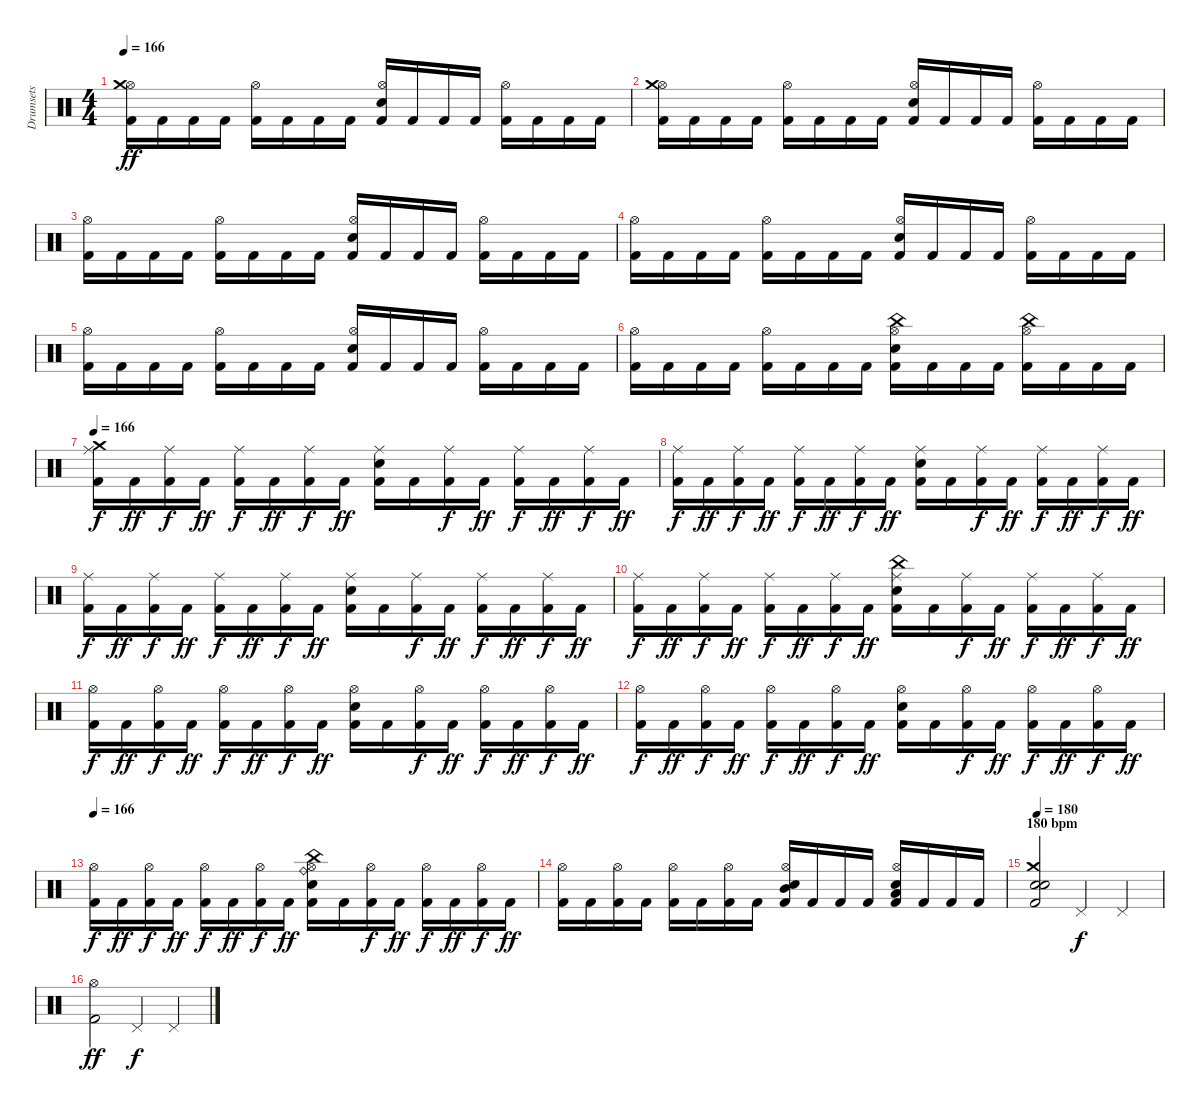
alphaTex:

\track ("Drumsets" "Drumsets") {instrument percussion}
\staff {score}
\articulation defaults
\ts (4 4)
\tempo 166
\clef neutral
\ks c
("Kick (hit) 2" "Hi-Hat (open)" "Crash medium (hit)").16{dy ff} "Kick (hit) 2".16 "Kick (hit) 2".16 "Kick (hit) 2".16 ("Kick (hit) 2" "Hi-Hat (open)").16 "Kick (hit) 2".16 "Kick (hit) 2".16 "Kick (hit) 2".16 ("Kick (hit) 2" "Electric Snare (hit)" "Hi-Hat (open)").16 "Kick (hit) 2".16 "Kick (hit) 2".16 "Kick (hit) 2".16 ("Kick (hit) 2" "Hi-Hat (open)").16 "Kick (hit) 2".16 "Kick (hit) 2".16 "Kick (hit) 2".16 |
("Kick (hit) 2" "Hi-Hat (open)" "Crash medium (hit)").16 "Kick (hit) 2".16 "Kick (hit) 2".16 "Kick (hit) 2".16 ("Kick (hit) 2" "Hi-Hat (open)").16 "Kick (hit) 2".16 "Kick (hit) 2".16 "Kick (hit) 2".16 ("Kick (hit) 2" "Electric Snare (hit)" "Hi-Hat (open)").16 "Kick (hit) 2".16 "Kick (hit) 2".16 "Kick (hit) 2".16 ("Kick (hit) 2" "Hi-Hat (open)").16 "Kick (hit) 2".16 "Kick (hit) 2".16 "Kick (hit) 2".16 |
("Kick (hit) 2" "Hi-Hat (open)").16 "Kick (hit) 2".16 "Kick (hit) 2".16 "Kick (hit) 2".16 ("Kick (hit) 2" "Hi-Hat (open)").16 "Kick (hit) 2".16 "Kick (hit) 2".16 "Kick (hit) 2".16 ("Kick (hit) 2" "Electric Snare (hit)" "Hi-Hat (open)").16 "Kick (hit) 2".16 "Kick (hit) 2".16 "Kick (hit) 2".16 ("Kick (hit) 2" "Hi-Hat (open)").16 "Kick (hit) 2".16 "Kick (hit) 2".16 "Kick (hit) 2".16 |
("Kick (hit) 2" "Hi-Hat (open)").16 "Kick (hit) 2".16 "Kick (hit) 2".16 "Kick (hit) 2".16 ("Kick (hit) 2" "Hi-Hat (open)").16 "Kick (hit) 2".16 "Kick (hit) 2".16 "Kick (hit) 2".16 ("Kick (hit) 2" "Electric Snare (hit)" "Hi-Hat (open)").16 "Kick (hit) 2".16 "Kick (hit) 2".16 "Kick (hit) 2".16 ("Kick (hit) 2" "Hi-Hat (open)").16 "Kick (hit) 2".16 "Kick (hit) 2".16 "Kick (hit) 2".16 |
("Kick (hit) 2" "Hi-Hat (open)").16 "Kick (hit) 2".16 "Kick (hit) 2".16 "Kick (hit) 2".16 ("Kick (hit) 2" "Hi-Hat (open)").16 "Kick (hit) 2".16 "Kick (hit) 2".16 "Kick (hit) 2".16 ("Kick (hit) 2" "Electric Snare (hit)" "Hi-Hat (open)").16 "Kick (hit) 2".16 "Kick (hit) 2".16 "Kick (hit) 2".16 ("Kick (hit) 2" "Hi-Hat (open)").16 "Kick (hit) 2".16 "Kick (hit) 2".16 "Kick (hit) 2".16 |
("Kick (hit) 2" "Hi-Hat (open)").16 "Kick (hit) 2".16 "Kick (hit) 2".16 "Kick (hit) 2".16 ("Kick (hit) 2" "Hi-Hat (open)").16 "Kick (hit) 2".16 "Kick (hit) 2".16 "Kick (hit) 2".16 ("Kick (hit) 2" "Electric Snare (hit)" "Hi-Hat (open)" "China (hit)").16 "Kick (hit) 2".16 "Kick (hit) 2".16 "Kick (hit) 2".16 ("Kick (hit) 2" "Hi-Hat (open)" "China (hit)").16 "Kick (hit) 2".16 "Kick (hit) 2".16 "Kick (hit) 2".16 |
\tempo 166
("Kick (hit) 2" "Ride (middle)" "Crash medium (hit)").16{dy f} "Kick (hit) 2".16{dy ff} ("Kick (hit) 2" "Ride (middle)").16{dy f} "Kick (hit) 2".16{dy ff} ("Kick (hit) 2" "Ride (middle)").16{dy f} "Kick (hit) 2".16{dy ff} ("Kick (hit) 2" "Ride (middle)").16{dy f} "Kick (hit) 2".16{dy ff} ("Kick (hit) 2" "Electric Snare (hit)" "Ride (middle)").16 "Kick (hit) 2".16 ("Kick (hit) 2" "Ride (middle)").16{dy f} "Kick (hit) 2".16{dy ff} ("Kick (hit) 2" "Ride (middle)").16{dy f} "Kick (hit) 2".16{dy ff} ("Kick (hit) 2" "Ride (middle)").16{dy f} "Kick (hit) 2".16{dy ff} |
("Kick (hit) 2" "Ride (middle)").16{dy f} "Kick (hit) 2".16{dy ff} ("Kick (hit) 2" "Ride (middle)").16{dy f} "Kick (hit) 2".16{dy ff} ("Kick (hit) 2" "Ride (middle)").16{dy f} "Kick (hit) 2".16{dy ff} ("Kick (hit) 2" "Ride (middle)").16{dy f} "Kick (hit) 2".16{dy ff} ("Kick (hit) 2" "Electric Snare (hit)" "Ride (middle)").16 "Kick (hit) 2".16 ("Kick (hit) 2" "Ride (middle)").16{dy f} "Kick (hit) 2".16{dy ff} ("Kick (hit) 2" "Ride (middle)").16{dy f} "Kick (hit) 2".16{dy ff} ("Kick (hit) 2" "Ride (middle)").16{dy f} "Kick (hit) 2".16{dy ff} |
("Kick (hit) 2" "Ride (middle)").16{dy f} "Kick (hit) 2".16{dy ff} ("Kick (hit) 2" "Ride (middle)").16{dy f} "Kick (hit) 2".16{dy ff} ("Kick (hit) 2" "Ride (middle)").16{dy f} "Kick (hit) 2".16{dy ff} ("Kick (hit) 2" "Ride (middle)").16{dy f} "Kick (hit) 2".16{dy ff} ("Kick (hit) 2" "Electric Snare (hit)" "Ride (middle)").16 "Kick (hit) 2".16 ("Kick (hit) 2" "Ride (middle)").16{dy f} "Kick (hit) 2".16{dy ff} ("Kick (hit) 2" "Ride (middle)").16{dy f} "Kick (hit) 2".16{dy ff} ("Kick (hit) 2" "Ride (middle)").16{dy f} "Kick (hit) 2".16{dy ff} |
("Kick (hit) 2" "Ride (middle)").16{dy f} "Kick (hit) 2".16{dy ff} ("Kick (hit) 2" "Ride (middle)").16{dy f} "Kick (hit) 2".16{dy ff} ("Kick (hit) 2" "Ride (middle)").16{dy f} "Kick (hit) 2".16{dy ff} ("Kick (hit) 2" "Ride (middle)").16{dy f} "Kick (hit) 2".16{dy ff} ("Kick (hit) 2" "Electric Snare (hit)" "Ride (middle)" "China (hit)").16 "Kick (hit) 2".16 ("Kick (hit) 2" "Ride (middle)").16{dy f} "Kick (hit) 2".16{dy ff} ("Kick (hit) 2" "Ride (middle)").16{dy f} "Kick (hit) 2".16{dy ff} ("Kick (hit) 2" "Ride (middle)").16{dy f} "Kick (hit) 2".16{dy ff} |
("Kick (hit) 2" "Hi-Hat (open)").16{dy f} "Kick (hit) 2".16{dy ff} ("Kick (hit) 2" "Hi-Hat (open)").16{dy f} "Kick (hit) 2".16{dy ff} ("Kick (hit) 2" "Hi-Hat (open)").16{dy f} "Kick (hit) 2".16{dy ff} ("Kick (hit) 2" "Hi-Hat (open)").16{dy f} "Kick (hit) 2".16{dy ff} ("Kick (hit) 2" "Electric Snare (hit)" "Hi-Hat (open)").16 "Kick (hit) 2".16 ("Kick (hit) 2" "Hi-Hat (open)").16{dy f} "Kick (hit) 2".16{dy ff} ("Kick (hit) 2" "Hi-Hat (open)").16{dy f} "Kick (hit) 2".16{dy ff} ("Kick (hit) 2" "Hi-Hat (open)").16{dy f} "Kick (hit) 2".16{dy ff} |
("Kick (hit) 2" "Hi-Hat (open)").16{dy f} "Kick (hit) 2".16{dy ff} ("Kick (hit) 2" "Hi-Hat (open)").16{dy f} "Kick (hit) 2".16{dy ff} ("Kick (hit) 2" "Hi-Hat (open)").16{dy f} "Kick (hit) 2".16{dy ff} ("Kick (hit) 2" "Hi-Hat (open)").16{dy f} "Kick (hit) 2".16{dy ff} ("Kick (hit) 2" "Electric Snare (hit)" "Hi-Hat (open)").16 "Kick (hit) 2".16 ("Kick (hit) 2" "Hi-Hat (open)").16{dy f} "Kick (hit) 2".16{dy ff} ("Kick (hit) 2" "Hi-Hat (open)").16{dy f} "Kick (hit) 2".16{dy ff} ("Kick (hit) 2" "Hi-Hat (open)").16{dy f} "Kick (hit) 2".16{dy ff} |
\tempo 166
("Kick (hit) 2" "Hi-Hat (open)").16{dy f} "Kick (hit) 2".16{dy ff} ("Kick (hit) 2" "Hi-Hat (open)").16{dy f} "Kick (hit) 2".16{dy ff} ("Kick (hit) 2" "Hi-Hat (open)").16{dy f} "Kick (hit) 2".16{dy ff} ("Kick (hit) 2" "Hi-Hat (open)").16{dy f} "Kick (hit) 2".16{dy ff} ("Kick (hit) 2" "Electric Snare (hit)" "China (hit)" "Hi-Hat (open)" "Ride (bell)").16 "Kick (hit) 2".16 ("Kick (hit) 2" "Hi-Hat (open)").16{dy f} "Kick (hit) 2".16{dy ff} ("Kick (hit) 2" "Hi-Hat (open)").16{dy f} "Kick (hit) 2".16{dy ff} ("Kick (hit) 2" "Hi-Hat (open)").16{dy f} "Kick (hit) 2".16{dy ff} |
("Kick (hit) 2" "Hi-Hat (open)").16 "Kick (hit) 2".16 ("Kick (hit) 2" "Hi-Hat (open)").16 "Kick (hit) 2".16 ("Kick (hit) 2" "Hi-Hat (open)").16 "Kick (hit) 2".16 ("Kick (hit) 2" "Hi-Hat (open)").16 "Kick (hit) 2".16 ("Kick (hit) 2" "Electric Snare (hit)" "Hi-Hat (open)" "Mid Tom (hit)").16 "Kick (hit) 2".16 "Kick (hit) 2".16 "Kick (hit) 2".16 ("Kick (hit) 2" "Electric Snare (hit)" "Hi-Hat (open)" "Low Tom (hit)").16 "Kick (hit) 2".16 "Kick (hit) 2".16 "Kick (hit) 2".16 |
\section ("" "180 bpm")
\tempo 180
("Kick (hit) 2" "Snare (hit) 2" "Electric Snare (hit)" "Crash medium (hit)").2 "Pedal Hi-Hat (hit)".4{dy f} "Pedal Hi-Hat (hit)".4 |
("Kick (hit) 2" "Hi-Hat (open)").2{dy ff} "Pedal Hi-Hat (hit)".4{dy f} "Pedal Hi-Hat (hit)".4
